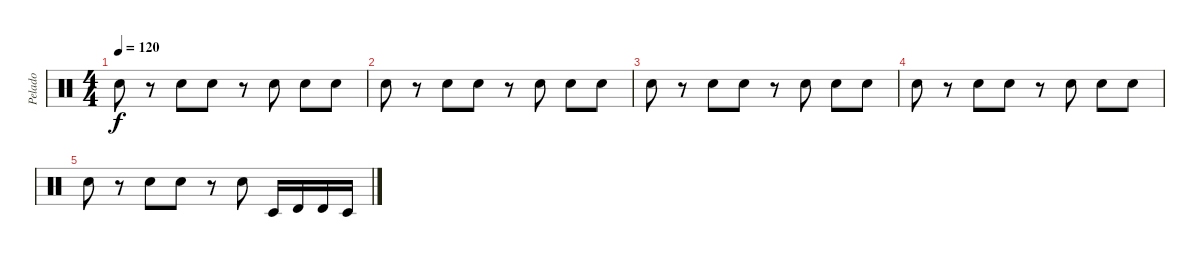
\track ("Pelado" "Pelado") {instrument percussion}
\staff {score}
\articulation defaults
\ts (4 4)
\tempo 120
\clef neutral
\ks c "Snare (hit) 2".8{dy f}
r.8 "Electric Snare (hit)".8 "Electric Snare (hit)".8 r.8 "Snare (hit) 2".8 "Electric Snare (hit)".8 "Electric Snare (hit)".8 |
"Snare (hit) 2".8 r.8 "Electric Snare (hit)".8 "Electric Snare (hit)".8 r.8 "Snare (hit) 2".8 "Electric Snare (hit)".8 "Electric Snare (hit)".8 |
"Snare (hit) 2".8 r.8 "Electric Snare (hit)".8 "Electric Snare (hit)".8 r.8 "Snare (hit) 2".8 "Electric Snare (hit)".8 "Electric Snare (hit)".8 |
"Snare (hit) 2".8 r.8 "Electric Snare (hit)".8 "Electric Snare (hit)".8 r.8 "Snare (hit) 2".8 "Electric Snare (hit)".8 "Electric Snare (hit)".8 |
"Snare (hit) 2".8 r.8 "Electric Snare (hit)".8 "Electric Snare (hit)".8 r.8 "Snare (hit) 2".8 "Timbale low (hit)".16 "Timbale high (hit)".16 "Timbale high (hit)".16 "Timbale low (hit)".16
